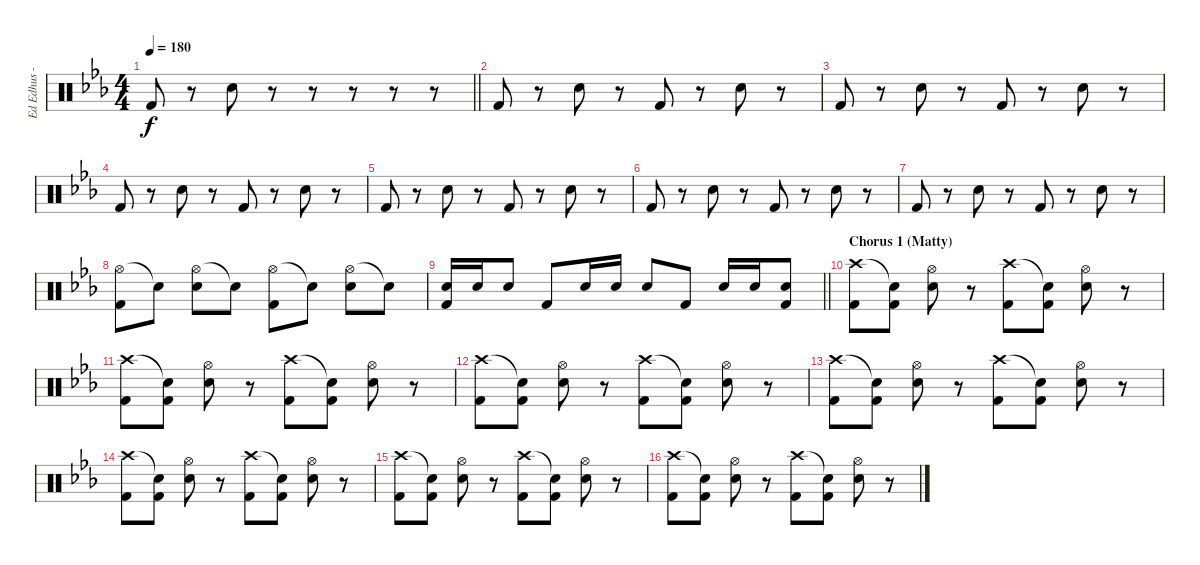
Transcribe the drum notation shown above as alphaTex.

\track ("Ed Edhus - Drums" "Ed Edhus -") {instrument percussion bank 127}
\staff {score}
\articulation defaults
\ts (4 4)
\tempo 180
\clef neutral
\barLineRight lightlight
\ks eb "Kick (hit) 2".8{dy f}
r.8 "Snare (hit) 2".8 r.8 r.8 r.8 r.8 r.8 |
"Kick (hit) 2".8 r.8 "Snare (hit) 2".8 r.8 "Kick (hit) 2".8 r.8 "Snare (hit) 2".8 r.8 |
"Kick (hit) 2".8 r.8 "Snare (hit) 2".8 r.8 "Kick (hit) 2".8 r.8 "Snare (hit) 2".8 r.8 |
"Kick (hit) 2".8 r.8 "Snare (hit) 2".8 r.8 "Kick (hit) 2".8 r.8 "Snare (hit) 2".8 r.8 |
"Kick (hit) 2".8 r.8 "Snare (hit) 2".8 r.8 "Kick (hit) 2".8 r.8 "Snare (hit) 2".8 r.8 |
"Kick (hit) 2".8 r.8 "Snare (hit) 2".8 r.8 "Kick (hit) 2".8 r.8 "Snare (hit) 2".8 r.8 |
"Kick (hit) 2".8 r.8 "Snare (hit) 2".8 r.8 "Kick (hit) 2".8 r.8 "Snare (hit) 2".8 r.8 |
("Hi-Hat (open)" "Kick (hit) 2").8 "Snare (hit)"{t}.8 ("Hi-Hat (open)" "Snare (hit) 2").8 "Snare (hit)"{t}.8 ("Hi-Hat (open)" "Kick (hit) 2").8 "Snare (hit)"{t}.8 ("Hi-Hat (open)" "Snare (hit) 2").8 "Snare (hit)"{t}.8 |
\barLineRight lightlight
("Snare (hit) 2" "Kick (hit) 2").16 "Snare (hit) 2".16 "Snare (hit) 2".8 "Kick (hit) 2".8 "Snare (hit) 2".16 "Snare (hit) 2".16 "Snare (hit) 2".8 "Kick (hit) 2".8 "Snare (hit) 2".16 "Snare (hit) 2".16 ("Snare (hit) 2" "Kick (hit) 2").8 |
\section ("" "Chorus 1 (Matty)")
("Crash high (hit)" "Kick (hit) 2").8 ("Snare (hit)"{t} "Kick (hit) 2").8 ("Hi-Hat (open)" "Snare (hit) 2").8 r.8 ("Crash high (hit)" "Kick (hit) 2").8 ("Snare (hit)"{t} "Kick (hit) 2").8 ("Hi-Hat (open)" "Snare (hit) 2").8 r.8 |
("Crash high (hit)" "Kick (hit) 2").8 ("Snare (hit)"{t} "Kick (hit) 2").8 ("Hi-Hat (open)" "Snare (hit) 2").8 r.8 ("Crash high (hit)" "Kick (hit) 2").8 ("Snare (hit)"{t} "Kick (hit) 2").8 ("Hi-Hat (open)" "Snare (hit) 2").8 r.8 |
("Crash high (hit)" "Kick (hit) 2").8 ("Snare (hit)"{t} "Kick (hit) 2").8 ("Hi-Hat (open)" "Snare (hit) 2").8 r.8 ("Crash high (hit)" "Kick (hit) 2").8 ("Snare (hit)"{t} "Kick (hit) 2").8 ("Hi-Hat (open)" "Snare (hit) 2").8 r.8 |
("Crash high (hit)" "Kick (hit) 2").8 ("Snare (hit)"{t} "Kick (hit) 2").8 ("Hi-Hat (open)" "Snare (hit) 2").8 r.8 ("Crash high (hit)" "Kick (hit) 2").8 ("Snare (hit)"{t} "Kick (hit) 2").8 ("Hi-Hat (open)" "Snare (hit) 2").8 r.8 |
("Crash high (hit)" "Kick (hit) 2").8 ("Snare (hit)"{t} "Kick (hit) 2").8 ("Hi-Hat (open)" "Snare (hit) 2").8 r.8 ("Crash high (hit)" "Kick (hit) 2").8 ("Snare (hit)"{t} "Kick (hit) 2").8 ("Hi-Hat (open)" "Snare (hit) 2").8 r.8 |
("Crash high (hit)" "Kick (hit) 2").8 ("Snare (hit)"{t} "Kick (hit) 2").8 ("Hi-Hat (open)" "Snare (hit) 2").8 r.8 ("Crash high (hit)" "Kick (hit) 2").8 ("Snare (hit)"{t} "Kick (hit) 2").8 ("Hi-Hat (open)" "Snare (hit) 2").8 r.8 |
("Crash high (hit)" "Kick (hit) 2").8 ("Snare (hit)"{t} "Kick (hit) 2").8 ("Hi-Hat (open)" "Snare (hit) 2").8 r.8 ("Crash high (hit)" "Kick (hit) 2").8 ("Snare (hit)"{t} "Kick (hit) 2").8 ("Hi-Hat (open)" "Snare (hit) 2").8 r.8
